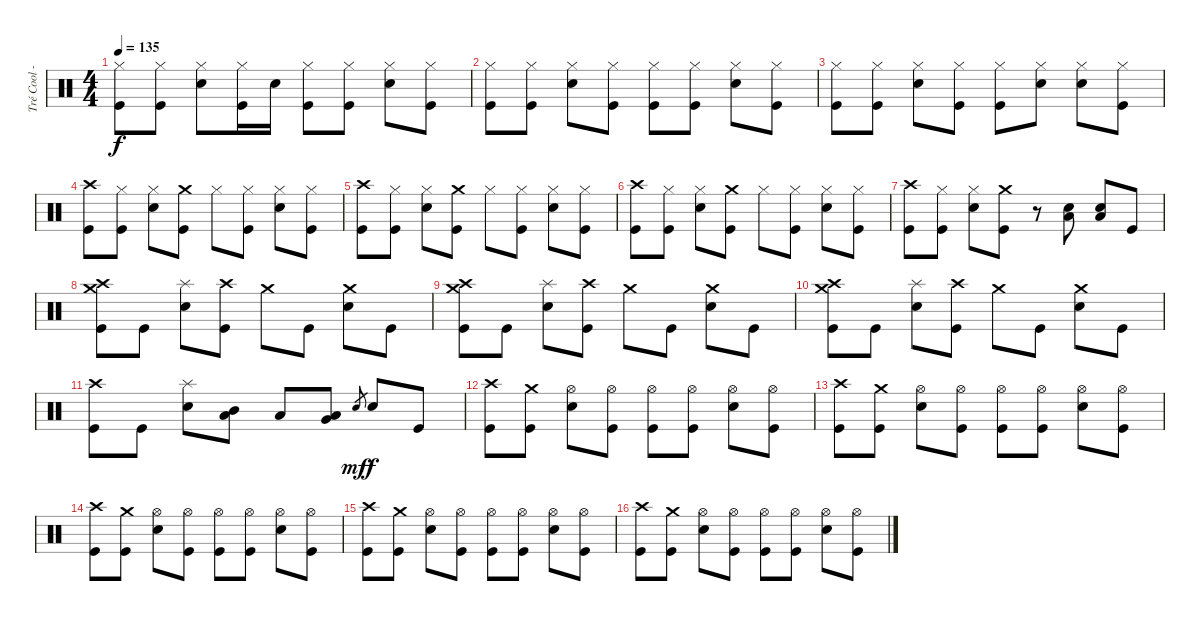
\track ("Tré Cool - Drums" "Tré Cool -") {instrument percussion}
\staff {score}
\articulation defaults
\ts (4 4)
\tempo 135
\clef neutral
\ks c
("Hi-Hat (closed)" "Kick (hit)").8{dy f} ("Hi-Hat (closed)" "Kick (hit)").8 ("Hi-Hat (closed)" "Electric Snare (hit)").8 ("Hi-Hat (closed)" "Kick (hit)").16 "Electric Snare (hit)".16 ("Hi-Hat (closed)" "Kick (hit)").8 ("Hi-Hat (closed)" "Kick (hit)").8 ("Hi-Hat (closed)" "Electric Snare (hit)").8 ("Hi-Hat (closed)" "Kick (hit)").8 |
("Hi-Hat (closed)" "Kick (hit)").8 ("Hi-Hat (closed)" "Kick (hit)").8 ("Hi-Hat (closed)" "Electric Snare (hit)").8 ("Hi-Hat (closed)" "Kick (hit)").8 ("Hi-Hat (closed)" "Kick (hit)").8 ("Hi-Hat (closed)" "Kick (hit)").8 ("Hi-Hat (closed)" "Electric Snare (hit)").8 ("Hi-Hat (closed)" "Kick (hit)").8 |
("Hi-Hat (closed)" "Kick (hit)").8 ("Hi-Hat (closed)" "Kick (hit)").8 ("Hi-Hat (closed)" "Electric Snare (hit)").8 ("Hi-Hat (closed)" "Kick (hit)").8 ("Hi-Hat (closed)" "Kick (hit)").8 ("Hi-Hat (closed)" "Electric Snare (hit)").8 ("Hi-Hat (closed)" "Electric Snare (hit)").8 ("Hi-Hat (closed)" "Kick (hit)").8 |
("Crash high (hit)" "Kick (hit)").8 ("Hi-Hat (closed)" "Kick (hit)").8 ("Hi-Hat (closed)" "Electric Snare (hit)").8 ("Crash medium (hit)" "Kick (hit)").8 "Hi-Hat (closed)".8 ("Hi-Hat (closed)" "Kick (hit)").8 ("Hi-Hat (closed)" "Electric Snare (hit)").8 ("Hi-Hat (closed)" "Kick (hit)").8 |
("Crash high (hit)" "Kick (hit)").8 ("Hi-Hat (closed)" "Kick (hit)").8 ("Hi-Hat (closed)" "Electric Snare (hit)").8 ("Crash medium (hit)" "Kick (hit)").8 "Hi-Hat (closed)".8 ("Hi-Hat (closed)" "Kick (hit)").8 ("Hi-Hat (closed)" "Electric Snare (hit)").8 ("Hi-Hat (closed)" "Kick (hit)").8 |
("Crash high (hit)" "Kick (hit)").8 ("Hi-Hat (closed)" "Kick (hit)").8 ("Hi-Hat (closed)" "Electric Snare (hit)").8 ("Crash medium (hit)" "Kick (hit)").8 "Hi-Hat (closed)".8 ("Hi-Hat (closed)" "Kick (hit)").8 ("Hi-Hat (closed)" "Electric Snare (hit)").8 ("Hi-Hat (closed)" "Kick (hit)").8 |
("Crash high (hit)" "Kick (hit)").8 ("Hi-Hat (closed)" "Kick (hit)").8 ("Hi-Hat (closed)" "Electric Snare (hit)").8 ("Crash medium (hit)" "Kick (hit)").8 r.8 ("Low Floor Tom (hit)" "Electric Snare (hit)").8 ("Low Floor Tom (hit)" "Electric Snare (hit)").8 "Kick (hit)".8 |
("Crash medium (hit)" "Crash high (hit)" "Kick (hit)").8 "Kick (hit)".8 ("Splash (hit)" "Electric Snare (hit)").8 ("Crash high (hit)" "Kick (hit)").8 "Crash medium (hit)".8 "Kick (hit)".8 ("Crash medium (hit)" "Electric Snare (hit)").8 "Kick (hit)".8 |
("Crash medium (hit)" "Crash high (hit)" "Kick (hit)").8 "Kick (hit)".8 ("Splash (hit)" "Electric Snare (hit)").8 ("Crash high (hit)" "Kick (hit)").8 "Crash medium (hit)".8 "Kick (hit)".8 ("Crash medium (hit)" "Electric Snare (hit)").8 "Kick (hit)".8 |
("Crash medium (hit)" "Crash high (hit)" "Kick (hit)").8 "Kick (hit)".8 ("Splash (hit)" "Electric Snare (hit)").8 ("Crash high (hit)" "Kick (hit)").8 "Crash medium (hit)".8 "Kick (hit)".8 ("Crash medium (hit)" "Electric Snare (hit)").8 "Kick (hit)".8 |
("Crash high (hit)" "Kick (hit)").8 "Kick (hit)".8 ("Splash (hit)" "Electric Snare (hit)").8 ("Low Tom (hit)" "Mid Tom (hit)").8 "Low Tom (hit)".8 ("Low Tom (hit)" "Very Low Tom (hit)").8 "Electric Snare (hit)".8{gr dy mf} "Electric Snare (hit)".8{dy f} "Kick (hit)".8 |
("Crash high (hit)" "Kick (hit)").8 ("Crash medium (hit)" "Kick (hit)").8 ("Hi-Hat (open)" "Electric Snare (hit)").8 ("Hi-Hat (open)" "Kick (hit)").8 ("Hi-Hat (open)" "Kick (hit)").8 ("Hi-Hat (open)" "Kick (hit)").8 ("Hi-Hat (open)" "Electric Snare (hit)").8 ("Hi-Hat (open)" "Kick (hit)").8 |
("Crash high (hit)" "Kick (hit)").8 ("Crash medium (hit)" "Kick (hit)").8 ("Hi-Hat (open)" "Electric Snare (hit)").8 ("Hi-Hat (open)" "Kick (hit)").8 ("Hi-Hat (open)" "Kick (hit)").8 ("Hi-Hat (open)" "Kick (hit)").8 ("Hi-Hat (open)" "Electric Snare (hit)").8 ("Hi-Hat (open)" "Kick (hit)").8 |
("Crash high (hit)" "Kick (hit)").8 ("Crash medium (hit)" "Kick (hit)").8 ("Hi-Hat (open)" "Electric Snare (hit)").8 ("Hi-Hat (open)" "Kick (hit)").8 ("Hi-Hat (open)" "Kick (hit)").8 ("Hi-Hat (open)" "Kick (hit)").8 ("Hi-Hat (open)" "Electric Snare (hit)").8 ("Hi-Hat (open)" "Kick (hit)").8 |
("Crash high (hit)" "Kick (hit)").8 ("Crash medium (hit)" "Kick (hit)").8 ("Hi-Hat (open)" "Electric Snare (hit)").8 ("Hi-Hat (open)" "Kick (hit)").8 ("Hi-Hat (open)" "Kick (hit)").8 ("Hi-Hat (open)" "Kick (hit)").8 ("Hi-Hat (open)" "Electric Snare (hit)").8 ("Hi-Hat (open)" "Kick (hit)").8 |
("Crash high (hit)" "Kick (hit)").8 ("Crash medium (hit)" "Kick (hit)").8 ("Hi-Hat (open)" "Electric Snare (hit)").8 ("Hi-Hat (open)" "Kick (hit)").8 ("Hi-Hat (open)" "Kick (hit)").8 ("Hi-Hat (open)" "Kick (hit)").8 ("Hi-Hat (open)" "Electric Snare (hit)").8 ("Hi-Hat (open)" "Kick (hit)").8
